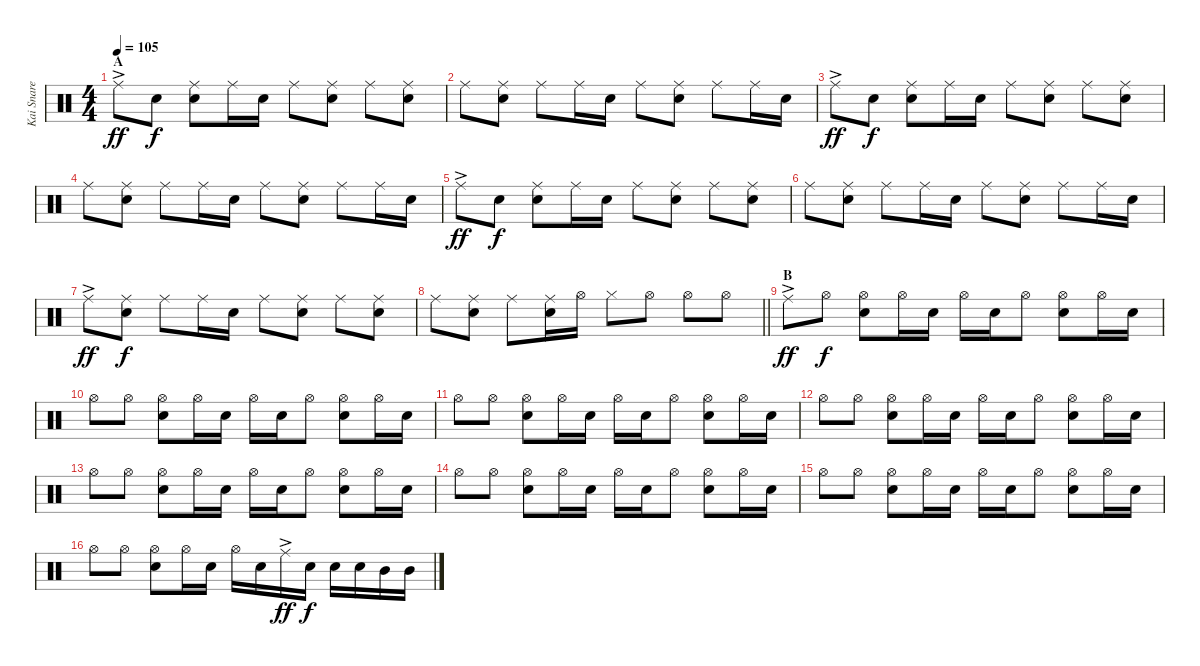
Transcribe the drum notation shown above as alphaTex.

\track ("Kai Snare" "Kai Snare") {instrument percussion}
\staff {score}
\articulation defaults
\ts (4 4)
\section ("" "A")
\tempo 105
\clef neutral
\ks c "Ride (middle)"{ac}.8{dy ff} "Snare (hit) 2".8{dy f}
("Ride (middle)" "Snare (hit) 2").8 "Ride (middle)".16 "Snare (hit) 2".16 "Ride (middle)".8 ("Ride (middle)" "Snare (hit) 2").8 "Ride (middle)".8 ("Ride (middle)" "Snare (hit) 2").8 |
"Ride (middle)".8 ("Ride (middle)" "Snare (hit) 2").8 "Ride (middle)".8 "Ride (middle)".16 "Snare (hit) 2".16 "Ride (middle)".8 ("Ride (middle)" "Snare (hit) 2").8 "Ride (middle)".8 "Ride (middle)".16 "Snare (hit) 2".16 |
"Ride (middle)"{ac}.8{dy ff} "Snare (hit) 2".8{dy f} ("Ride (middle)" "Snare (hit) 2").8 "Ride (middle)".16 "Snare (hit) 2".16 "Ride (middle)".8 ("Ride (middle)" "Snare (hit) 2").8 "Ride (middle)".8 ("Ride (middle)" "Snare (hit) 2").8 |
"Ride (middle)".8 ("Ride (middle)" "Snare (hit) 2").8 "Ride (middle)".8 "Ride (middle)".16 "Snare (hit) 2".16 "Ride (middle)".8 ("Ride (middle)" "Snare (hit) 2").8 "Ride (middle)".8 "Ride (middle)".16 "Snare (hit) 2".16 |
"Ride (middle)"{ac}.8{dy ff} "Snare (hit) 2".8{dy f} ("Ride (middle)" "Snare (hit) 2").8 "Ride (middle)".16 "Snare (hit) 2".16 "Ride (middle)".8 ("Ride (middle)" "Snare (hit) 2").8 "Ride (middle)".8 ("Ride (middle)" "Snare (hit) 2").8 |
"Ride (middle)".8 ("Ride (middle)" "Snare (hit) 2").8 "Ride (middle)".8 "Ride (middle)".16 "Snare (hit) 2".16 "Ride (middle)".8 ("Ride (middle)" "Snare (hit) 2").8 "Ride (middle)".8 "Ride (middle)".16 "Snare (hit) 2".16 |
"Ride (middle)"{ac}.8{dy ff} ("Ride (middle)" "Snare (hit) 2").8{dy f} "Ride (middle)".8 "Ride (middle)".16 "Snare (hit) 2".16 "Ride (middle)".8 ("Ride (middle)" "Snare (hit) 2").8 "Ride (middle)".8 ("Ride (middle)" "Snare (hit) 2").8 |
\barLineRight lightlight "Ride (middle)".8
("Ride (middle)" "Snare (hit) 2").8 "Ride (middle)".8 ("Ride (middle)" "Snare (hit) 2").16 "Hi-Hat (open)".16 "Hi-Hat (closed)".8 "Hi-Hat (open)".8 "Hi-Hat (open)".8 "Hi-Hat (open)".8 |
\section ("" "B")
"Ride (middle)"{ac}.8{dy ff} "Hi-Hat (open)".8{dy f} ("Hi-Hat (open)" "Snare (hit) 2").8 "Hi-Hat (open)".16 "Snare (hit) 2".16 "Hi-Hat (open)".16 "Snare (hit) 2".16 "Hi-Hat (open)".8 ("Hi-Hat (open)" "Snare (hit) 2").8 "Hi-Hat (open)".16 "Snare (hit) 2".16 |
"Hi-Hat (open)".8 "Hi-Hat (open)".8 ("Hi-Hat (open)" "Snare (hit) 2").8 "Hi-Hat (open)".16 "Snare (hit) 2".16 "Hi-Hat (open)".16 "Snare (hit) 2".16 "Hi-Hat (open)".8 ("Hi-Hat (open)" "Snare (hit) 2").8 "Hi-Hat (open)".16 "Snare (hit) 2".16 |
"Hi-Hat (open)".8 "Hi-Hat (open)".8 ("Hi-Hat (open)" "Snare (hit) 2").8 "Hi-Hat (open)".16 "Snare (hit) 2".16 "Hi-Hat (open)".16 "Snare (hit) 2".16 "Hi-Hat (open)".8 ("Hi-Hat (open)" "Snare (hit) 2").8 "Hi-Hat (open)".16 "Snare (hit) 2".16 |
"Hi-Hat (open)".8 "Hi-Hat (open)".8 ("Hi-Hat (open)" "Snare (hit) 2").8 "Hi-Hat (open)".16 "Snare (hit) 2".16 "Hi-Hat (open)".16 "Snare (hit) 2".16 "Hi-Hat (open)".8 ("Hi-Hat (open)" "Snare (hit) 2").8 "Hi-Hat (open)".16 "Snare (hit) 2".16 |
"Hi-Hat (open)".8 "Hi-Hat (open)".8 ("Hi-Hat (open)" "Snare (hit) 2").8 "Hi-Hat (open)".16 "Snare (hit) 2".16 "Hi-Hat (open)".16 "Snare (hit) 2".16 "Hi-Hat (open)".8 ("Hi-Hat (open)" "Snare (hit) 2").8 "Hi-Hat (open)".16 "Snare (hit) 2".16 |
"Hi-Hat (open)".8 "Hi-Hat (open)".8 ("Hi-Hat (open)" "Snare (hit) 2").8 "Hi-Hat (open)".16 "Snare (hit) 2".16 "Hi-Hat (open)".16 "Snare (hit) 2".16 "Hi-Hat (open)".8 ("Hi-Hat (open)" "Snare (hit) 2").8 "Hi-Hat (open)".16 "Snare (hit) 2".16 |
"Hi-Hat (open)".8 "Hi-Hat (open)".8 ("Hi-Hat (open)" "Snare (hit) 2").8 "Hi-Hat (open)".16 "Snare (hit) 2".16 "Hi-Hat (open)".16 "Snare (hit) 2".16 "Hi-Hat (open)".8 ("Hi-Hat (open)" "Snare (hit) 2").8 "Hi-Hat (open)".16 "Snare (hit) 2".16 |
"Hi-Hat (open)".8 "Hi-Hat (open)".8 ("Hi-Hat (open)" "Snare (hit) 2").8 "Hi-Hat (open)".16 "Snare (hit) 2".16 "Hi-Hat (open)".16 "Snare (hit) 2".16 "Ride (middle)"{ac}.16{dy ff} "Snare (hit) 2".16{dy f} "Snare (hit) 2".16 "Snare (hit) 2".16 "Mid Tom (hit)".16 "Mid Tom (hit)".16
